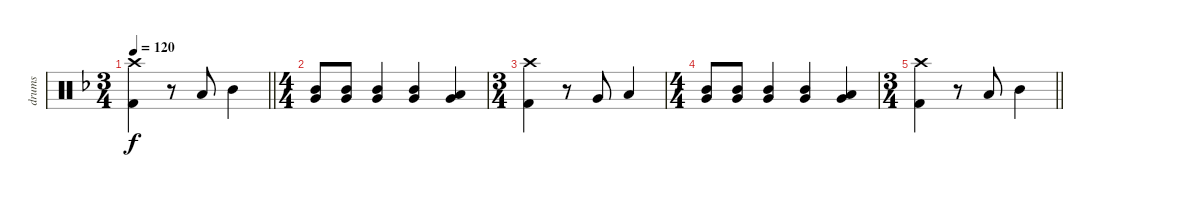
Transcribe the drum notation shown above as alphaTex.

\track ("drums" "drums") {instrument percussion}
\staff {score}
\articulation defaults
\ts (3 4)
\tempo 120
\clef neutral
\barLineRight lightlight
\ks f
("Crash high (hit)" "Kick (hit) 2").4{dy f} r.8 "Low Tom (hit)".8 "Mid Tom (hit)".4 |
\ts (4 4)
("Mid Tom (hit)" "Very Low Tom (hit)").8 ("Mid Tom (hit)" "Very Low Tom (hit)").8 ("Mid Tom (hit)" "Very Low Tom (hit)").4 ("Mid Tom (hit)" "Very Low Tom (hit)").4 ("Low Tom (hit)" "Very Low Tom (hit)").4 |
\ts (3 4)
("Crash high (hit)" "Kick (hit) 2").4 r.8 "Very Low Tom (hit)".8 "Low Tom (hit)".4 |
\ts (4 4)
("Mid Tom (hit)" "Very Low Tom (hit)").8 ("Mid Tom (hit)" "Very Low Tom (hit)").8 ("Mid Tom (hit)" "Very Low Tom (hit)").4 ("Mid Tom (hit)" "Very Low Tom (hit)").4 ("Low Tom (hit)" "Very Low Tom (hit)").4 |
\ts (3 4)
\barLineRight lightlight
("Crash high (hit)" "Kick (hit) 2").4 r.8 "Low Tom (hit)".8 "Mid Tom (hit)".4
